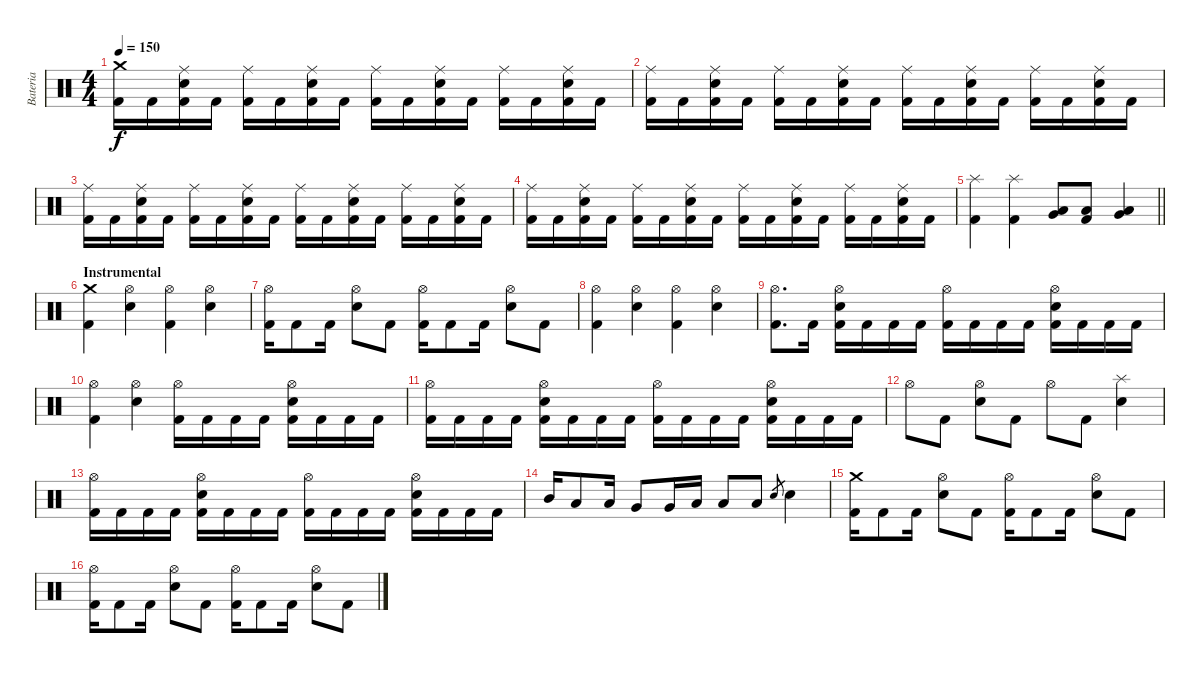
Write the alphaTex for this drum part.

\track ("Bateria" "Bateria") {instrument percussion}
\staff {score}
\articulation defaults
\ts (4 4)
\tempo 150
\clef neutral
\ks c
("Crash medium (hit)" "Kick (hit) 2").16{dy f} "Kick (hit) 2".16 ("Ride (middle)" "Snare (hit) 2" "Kick (hit) 2").16 "Kick (hit) 2".16 ("Ride (middle)" "Kick (hit) 2").16 "Kick (hit) 2".16 ("Ride (middle)" "Snare (hit) 2" "Kick (hit) 2").16 "Kick (hit) 2".16 ("Ride (middle)" "Kick (hit) 2").16 "Kick (hit) 2".16 ("Ride (middle)" "Snare (hit) 2" "Kick (hit) 2").16 "Kick (hit) 2".16 ("Ride (middle)" "Kick (hit) 2").16 "Kick (hit) 2".16 ("Ride (middle)" "Snare (hit) 2" "Kick (hit) 2").16 "Kick (hit) 2".16 |
("Ride (middle)" "Kick (hit) 2").16 "Kick (hit) 2".16 ("Ride (middle)" "Snare (hit) 2" "Kick (hit) 2").16 "Kick (hit) 2".16 ("Ride (middle)" "Kick (hit) 2").16 "Kick (hit) 2".16 ("Ride (middle)" "Snare (hit) 2" "Kick (hit) 2").16 "Kick (hit) 2".16 ("Ride (middle)" "Kick (hit) 2").16 "Kick (hit) 2".16 ("Ride (middle)" "Snare (hit) 2" "Kick (hit) 2").16 "Kick (hit) 2".16 ("Ride (middle)" "Kick (hit) 2").16 "Kick (hit) 2".16 ("Ride (middle)" "Snare (hit) 2" "Kick (hit) 2").16 "Kick (hit) 2".16 |
("Ride (middle)" "Kick (hit) 2").16 "Kick (hit) 2".16 ("Ride (middle)" "Snare (hit) 2" "Kick (hit) 2").16 "Kick (hit) 2".16 ("Ride (middle)" "Kick (hit) 2").16 "Kick (hit) 2".16 ("Ride (middle)" "Snare (hit) 2" "Kick (hit) 2").16 "Kick (hit) 2".16 ("Ride (middle)" "Kick (hit) 2").16 "Kick (hit) 2".16 ("Ride (middle)" "Snare (hit) 2" "Kick (hit) 2").16 "Kick (hit) 2".16 ("Ride (middle)" "Kick (hit) 2").16 "Kick (hit) 2".16 ("Ride (middle)" "Snare (hit) 2" "Kick (hit) 2").16 "Kick (hit) 2".16 |
("Ride (middle)" "Kick (hit) 2").16 "Kick (hit) 2".16 ("Ride (middle)" "Snare (hit) 2" "Kick (hit) 2").16 "Kick (hit) 2".16 ("Ride (middle)" "Kick (hit) 2").16 "Kick (hit) 2".16 ("Ride (middle)" "Snare (hit) 2" "Kick (hit) 2").16 "Kick (hit) 2".16 ("Ride (middle)" "Kick (hit) 2").16 "Kick (hit) 2".16 ("Ride (middle)" "Snare (hit) 2" "Kick (hit) 2").16 "Kick (hit) 2".16 ("Ride (middle)" "Kick (hit) 2").16 "Kick (hit) 2".16 ("Ride (middle)" "Snare (hit) 2" "Kick (hit) 2").16 "Kick (hit) 2".16 |
\barLineRight lightlight
("Splash (hit)" "Kick (hit) 2").4 ("Splash (hit)" "Kick (hit) 2").4 ("Low Floor Tom (hit)" "Very Low Tom (hit)").8 ("Low Floor Tom (hit)" "Kick (hit) 2").8 ("Low Floor Tom (hit)" "Very Low Tom (hit)").4 |
\section ("" "Instrumental")
("Crash medium (hit)" "Kick (hit) 2").4 ("Hi-Hat (open)" "Snare (hit) 2").4 ("Hi-Hat (open)" "Kick (hit) 2").4 ("Hi-Hat (open)" "Snare (hit) 2").4 |
("Hi-Hat (open)" "Kick (hit) 2").16 "Kick (hit) 2".8 "Kick (hit) 2".16 ("Hi-Hat (open)" "Snare (hit) 2").8 "Kick (hit) 2".8 ("Hi-Hat (open)" "Kick (hit) 2").16 "Kick (hit) 2".8 "Kick (hit) 2".16 ("Hi-Hat (open)" "Snare (hit) 2").8 "Kick (hit) 2".8 |
("Hi-Hat (open)" "Kick (hit) 2").4 ("Hi-Hat (open)" "Snare (hit) 2").4 ("Hi-Hat (open)" "Kick (hit) 2").4 ("Hi-Hat (open)" "Snare (hit) 2").4 |
("Hi-Hat (open)" "Kick (hit) 2").8{d} "Kick (hit) 2".16 ("Hi-Hat (open)" "Snare (hit) 2" "Kick (hit) 2").16 "Kick (hit) 2".16 "Kick (hit) 2".16 "Kick (hit) 2".16 ("Hi-Hat (open)" "Kick (hit) 2").16 "Kick (hit) 2".16 "Kick (hit) 2".16 "Kick (hit) 2".16 ("Hi-Hat (open)" "Snare (hit) 2" "Kick (hit) 2").16 "Kick (hit) 2".16 "Kick (hit) 2".16 "Kick (hit) 2".16 |
("Hi-Hat (open)" "Kick (hit) 2").4 ("Hi-Hat (open)" "Snare (hit) 2").4 ("Hi-Hat (open)" "Kick (hit) 2").16 "Kick (hit) 2".16 "Kick (hit) 2".16 "Kick (hit) 2".16 ("Hi-Hat (open)" "Snare (hit) 2" "Kick (hit) 2").16 "Kick (hit) 2".16 "Kick (hit) 2".16 "Kick (hit) 2".16 |
("Hi-Hat (open)" "Kick (hit) 2").16 "Kick (hit) 2".16 "Kick (hit) 2".16 "Kick (hit) 2".16 ("Hi-Hat (open)" "Snare (hit) 2" "Kick (hit) 2").16 "Kick (hit) 2".16 "Kick (hit) 2".16 "Kick (hit) 2".16 ("Hi-Hat (open)" "Kick (hit) 2").16 "Kick (hit) 2".16 "Kick (hit) 2".16 "Kick (hit) 2".16 ("Hi-Hat (open)" "Snare (hit) 2" "Kick (hit) 2").16 "Kick (hit) 2".16 "Kick (hit) 2".16 "Kick (hit) 2".16 |
"Hi-Hat (open)".8 "Kick (hit) 2".8 ("Hi-Hat (open)" "Snare (hit) 2").8 "Kick (hit) 2".8 "Hi-Hat (open)".8 "Kick (hit) 2".8 ("Splash (hit)" "Snare (hit) 2").4 |
("Hi-Hat (open)" "Kick (hit) 2").16 "Kick (hit) 2".16 "Kick (hit) 2".16 "Kick (hit) 2".16 ("Hi-Hat (open)" "Snare (hit) 2" "Kick (hit) 2").16 "Kick (hit) 2".16 "Kick (hit) 2".16 "Kick (hit) 2".16 ("Hi-Hat (open)" "Kick (hit) 2").16 "Kick (hit) 2".16 "Kick (hit) 2".16 "Kick (hit) 2".16 ("Hi-Hat (open)" "Snare (hit) 2" "Kick (hit) 2").16 "Kick (hit) 2".16 "Kick (hit) 2".16 "Kick (hit) 2".16 |
"Mid Tom (hit)".16 "Low Tom (hit)".8 "Low Tom (hit)".16 "Very Low Tom (hit)".8 "Very Low Tom (hit)".16 "Low Floor Tom (hit)".16 "Low Floor Tom (hit)".8 "Low Floor Tom (hit)".8 "Snare (hit) 2".8{gr} "Snare (hit) 2".4 |
("Crash medium (hit)" "Kick (hit) 2").16 "Kick (hit) 2".8 "Kick (hit) 2".16 ("Hi-Hat (open)" "Snare (hit) 2").8 "Kick (hit) 2".8 ("Hi-Hat (open)" "Kick (hit) 2").16 "Kick (hit) 2".8 "Kick (hit) 2".16 ("Hi-Hat (open)" "Snare (hit) 2").8 "Kick (hit) 2".8 |
("Hi-Hat (open)" "Kick (hit) 2").16 "Kick (hit) 2".8 "Kick (hit) 2".16 ("Hi-Hat (open)" "Snare (hit) 2").8 "Kick (hit) 2".8 ("Hi-Hat (open)" "Kick (hit) 2").16 "Kick (hit) 2".8 "Kick (hit) 2".16 ("Hi-Hat (open)" "Snare (hit) 2").8 "Kick (hit) 2".8
